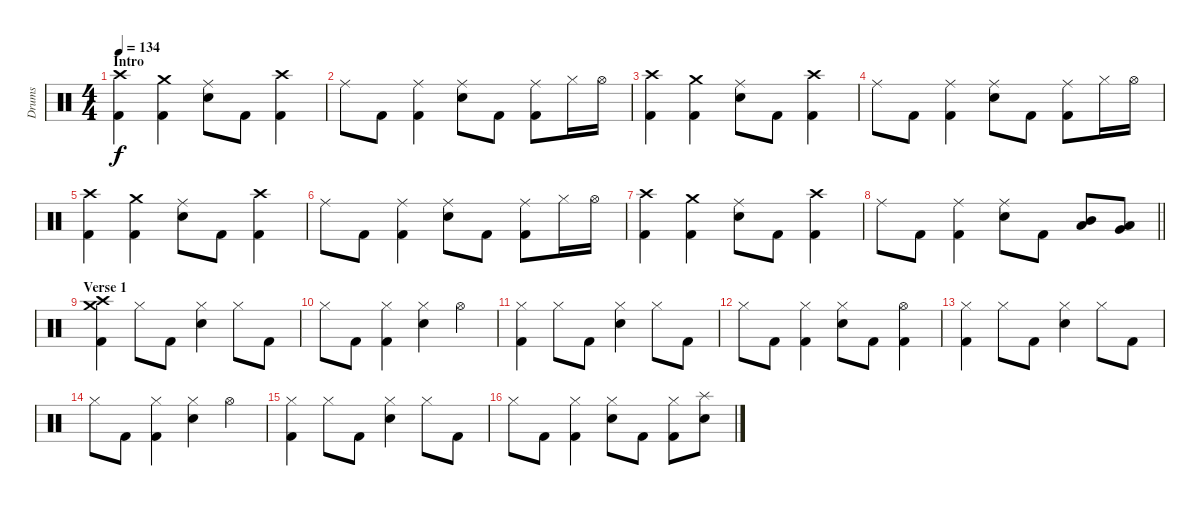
\track ("Drums" "Drums") {instrument percussion}
\staff {score}
\articulation defaults
\ts (4 4)
\section ("" "Intro")
\tempo 134
\clef neutral
\ks c
("Crash high (hit)" "Kick (hit) 2").4{dy f} ("Crash medium (hit)" "Kick (hit) 2").4 ("Ride (middle)" "Snare (hit) 2").8 "Kick (hit) 2".8 ("Crash high (hit)" "Kick (hit) 2").4 |
"Ride (middle)".8 "Kick (hit) 2".8 ("Ride (middle)" "Kick (hit) 2").4 ("Ride (middle)" "Snare (hit) 2").8 "Kick (hit) 2".8 ("Ride (middle)" "Kick (hit) 2").8 "Hi-Hat (closed)".16 "Hi-Hat (open)".16 |
("Crash high (hit)" "Kick (hit) 2").4 ("Crash medium (hit)" "Kick (hit) 2").4 ("Ride (middle)" "Snare (hit) 2").8 "Kick (hit) 2".8 ("Crash high (hit)" "Kick (hit) 2").4 |
"Ride (middle)".8 "Kick (hit) 2".8 ("Ride (middle)" "Kick (hit) 2").4 ("Ride (middle)" "Snare (hit) 2").8 "Kick (hit) 2".8 ("Ride (middle)" "Kick (hit) 2").8 "Hi-Hat (closed)".16 "Hi-Hat (open)".16 |
("Crash high (hit)" "Kick (hit) 2").4 ("Crash medium (hit)" "Kick (hit) 2").4 ("Ride (middle)" "Snare (hit) 2").8 "Kick (hit) 2".8 ("Crash high (hit)" "Kick (hit) 2").4 |
"Ride (middle)".8 "Kick (hit) 2".8 ("Ride (middle)" "Kick (hit) 2").4 ("Ride (middle)" "Snare (hit) 2").8 "Kick (hit) 2".8 ("Ride (middle)" "Kick (hit) 2").8 "Hi-Hat (closed)".16 "Hi-Hat (open)".16 |
("Crash high (hit)" "Kick (hit) 2").4 ("Crash medium (hit)" "Kick (hit) 2").4 ("Ride (middle)" "Snare (hit) 2").8 "Kick (hit) 2".8 ("Crash high (hit)" "Kick (hit) 2").4 |
\barLineRight lightlight "Ride (middle)".8 "Kick (hit) 2".8
("Ride (middle)" "Kick (hit) 2").4 ("Ride (middle)" "Snare (hit) 2").8 "Kick (hit) 2".8 ("Mid Tom (hit)" "Low Tom (hit)").8 ("Low Tom (hit)" "Very Low Tom (hit)").8 |
\section ("" "Verse 1")
("Crash high (hit)" "Crash medium (hit)" "Kick (hit) 2").4 "Hi-Hat (closed)".8 "Kick (hit) 2".8 ("Hi-Hat (closed)" "Snare (hit) 2").4 "Hi-Hat (closed)".8 "Kick (hit) 2".8 |
"Hi-Hat (closed)".8 "Kick (hit) 2".8 ("Hi-Hat (closed)" "Kick (hit) 2").4 ("Hi-Hat (closed)" "Snare (hit) 2").4 "Hi-Hat (open)".4 |
("Hi-Hat (closed)" "Kick (hit) 2").4 "Hi-Hat (closed)".8 "Kick (hit) 2".8 ("Hi-Hat (closed)" "Snare (hit) 2").4 "Hi-Hat (closed)".8 "Kick (hit) 2".8 |
"Hi-Hat (closed)".8 "Kick (hit) 2".8 ("Hi-Hat (closed)" "Kick (hit) 2").4 ("Hi-Hat (closed)" "Snare (hit) 2").8 "Kick (hit) 2".8 ("Hi-Hat (open)" "Kick (hit) 2").4 |
("Hi-Hat (closed)" "Kick (hit) 2").4 "Hi-Hat (closed)".8 "Kick (hit) 2".8 ("Hi-Hat (closed)" "Snare (hit) 2").4 "Hi-Hat (closed)".8 "Kick (hit) 2".8 |
"Hi-Hat (closed)".8 "Kick (hit) 2".8 ("Hi-Hat (closed)" "Kick (hit) 2").4 ("Hi-Hat (closed)" "Snare (hit) 2").4 "Hi-Hat (open)".4 |
("Hi-Hat (closed)" "Kick (hit) 2").4 "Hi-Hat (closed)".8 "Kick (hit) 2".8 ("Hi-Hat (closed)" "Snare (hit) 2").4 "Hi-Hat (closed)".8 "Kick (hit) 2".8 |
"Hi-Hat (closed)".8 "Kick (hit) 2".8 ("Hi-Hat (closed)" "Kick (hit) 2").4 ("Hi-Hat (closed)" "Snare (hit) 2").8 "Kick (hit) 2".8 ("Hi-Hat (closed)" "Kick (hit) 2").8 ("Splash (hit)" "Snare (hit) 2").8
